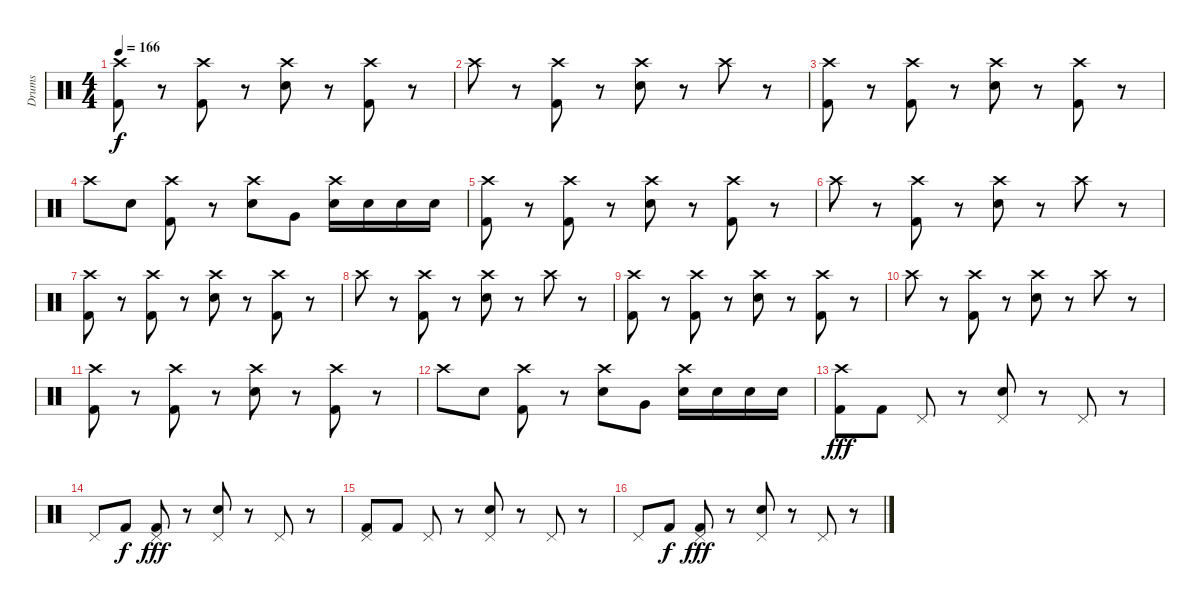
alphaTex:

\track ("Drums" "Drums") {instrument percussion}
\staff {score}
\articulation defaults
\ts (4 4)
\tempo 166
\clef neutral
\ks c
("Crash high (hit)" "Kick (hit) 2").8{dy f} r.8 ("Crash high (hit)" "Kick (hit) 2").8 r.8 ("Crash high (hit)" "Snare (hit) 2").8 r.8 ("Crash high (hit)" "Kick (hit) 2").8 r.8 |
"Crash high (hit)".8 r.8 ("Crash high (hit)" "Kick (hit) 2").8 r.8 ("Crash high (hit)" "Snare (hit) 2").8 r.8 "Crash high (hit)".8 r.8 |
("Crash high (hit)" "Kick (hit) 2").8 r.8 ("Crash high (hit)" "Kick (hit) 2").8 r.8 ("Crash high (hit)" "Snare (hit) 2").8 r.8 ("Crash high (hit)" "Kick (hit) 2").8 r.8 |
"Crash high (hit)".8 "Snare (hit) 2".8 ("Crash high (hit)" "Kick (hit) 2").8 r.8 ("Crash high (hit)" "Snare (hit) 2").8 "Very Low Tom (hit)".8 ("Crash high (hit)" "Snare (hit) 2").16 "Snare (hit) 2".16 "Snare (hit) 2".16 "Snare (hit) 2".16 |
("Crash high (hit)" "Kick (hit) 2").8 r.8 ("Crash high (hit)" "Kick (hit) 2").8 r.8 ("Crash high (hit)" "Snare (hit) 2").8 r.8 ("Crash high (hit)" "Kick (hit) 2").8 r.8 |
"Crash high (hit)".8 r.8 ("Crash high (hit)" "Kick (hit) 2").8 r.8 ("Crash high (hit)" "Snare (hit) 2").8 r.8 "Crash high (hit)".8 r.8 |
("Crash high (hit)" "Kick (hit) 2").8 r.8 ("Crash high (hit)" "Kick (hit) 2").8 r.8 ("Crash high (hit)" "Snare (hit) 2").8 r.8 ("Crash high (hit)" "Kick (hit) 2").8 r.8 |
"Crash high (hit)".8 r.8 ("Crash high (hit)" "Kick (hit) 2").8 r.8 ("Crash high (hit)" "Snare (hit) 2").8 r.8 "Crash high (hit)".8 r.8 |
("Crash high (hit)" "Kick (hit) 2").8 r.8 ("Crash high (hit)" "Kick (hit) 2").8 r.8 ("Crash high (hit)" "Snare (hit) 2").8 r.8 ("Crash high (hit)" "Kick (hit) 2").8 r.8 |
"Crash high (hit)".8 r.8 ("Crash high (hit)" "Kick (hit) 2").8 r.8 ("Crash high (hit)" "Snare (hit) 2").8 r.8 "Crash high (hit)".8 r.8 |
("Crash high (hit)" "Kick (hit) 2").8 r.8 ("Crash high (hit)" "Kick (hit) 2").8 r.8 ("Crash high (hit)" "Snare (hit) 2").8 r.8 ("Crash high (hit)" "Kick (hit) 2").8 r.8 |
"Crash high (hit)".8 "Snare (hit) 2".8 ("Crash high (hit)" "Kick (hit) 2").8 r.8 ("Crash high (hit)" "Snare (hit) 2").8 "Very Low Tom (hit)".8 ("Crash high (hit)" "Snare (hit) 2").16 "Snare (hit) 2".16 "Snare (hit) 2".16 "Snare (hit) 2".16 |
("Crash high (hit)" "Kick (hit) 2").8{dy fff} "Kick (hit) 2".8 "Pedal Hi-Hat (hit)".8 r.8 ("Pedal Hi-Hat (hit)" "Snare (hit) 2").8 r.8 "Pedal Hi-Hat (hit)".8 r.8 |
"Pedal Hi-Hat (hit)".8 "Kick (hit) 2".8{dy f} ("Pedal Hi-Hat (hit)" "Kick (hit) 2").8{dy fff} r.8 ("Pedal Hi-Hat (hit)" "Snare (hit) 2").8 r.8 "Pedal Hi-Hat (hit)".8 r.8 |
("Pedal Hi-Hat (hit)" "Kick (hit) 2").8 "Kick (hit) 2".8 "Pedal Hi-Hat (hit)".8 r.8 ("Pedal Hi-Hat (hit)" "Snare (hit) 2").8 r.8 "Pedal Hi-Hat (hit)".8 r.8 |
"Pedal Hi-Hat (hit)".8 "Kick (hit) 2".8{dy f} ("Pedal Hi-Hat (hit)" "Kick (hit) 2").8{dy fff} r.8 ("Pedal Hi-Hat (hit)" "Snare (hit) 2").8 r.8 "Pedal Hi-Hat (hit)".8 r.8
